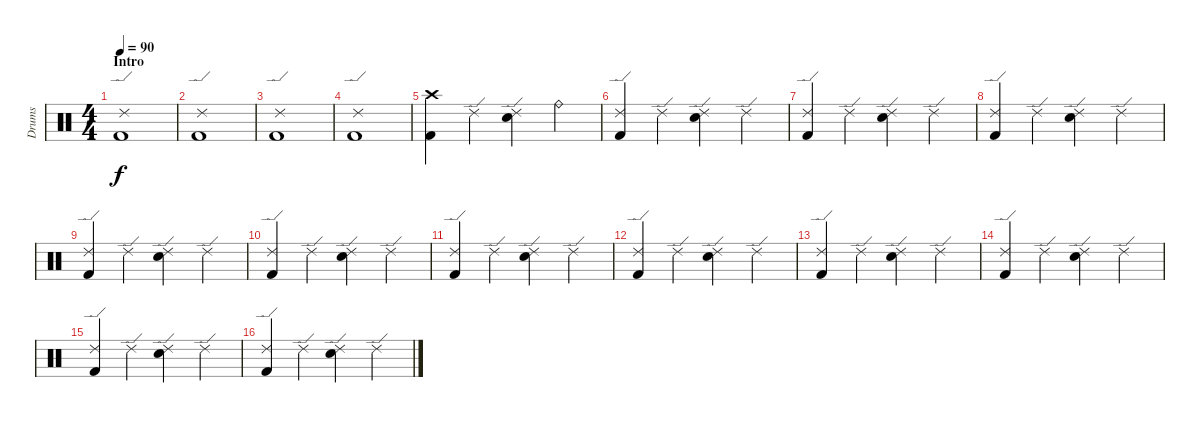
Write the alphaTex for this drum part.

\track ("Drums" "Drums") {instrument percussion}
\staff {score}
\articulation defaults
\ts (4 4)
\section ("" "Intro")
\tempo 90
\clef neutral
\ks c
("Kick (hit) 2" "Ride (edge) 2").1{dy f} |
("Kick (hit) 2" "Ride (edge) 2").1 |
("Kick (hit) 2" "Ride (edge) 2").1 |
("Kick (hit) 2" "Ride (edge) 2").1 |
("Crash high (hit)" "Kick (hit) 2").4 "Ride (edge) 2".4 ("Ride (edge) 2" "Electric Snare (hit)").4 "Ride (bell)".4 |
("Ride (edge) 2" "Kick (hit) 2").4 "Ride (edge) 2".4 ("Ride (edge) 2" "Electric Snare (hit)").4 "Ride (edge) 2".4 |
("Ride (edge) 2" "Kick (hit) 2").4 "Ride (edge) 2".4 ("Ride (edge) 2" "Electric Snare (hit)").4 "Ride (edge) 2".4 |
("Ride (edge) 2" "Kick (hit) 2").4 "Ride (edge) 2".4 ("Ride (edge) 2" "Electric Snare (hit)").4 "Ride (edge) 2".4 |
("Ride (edge) 2" "Kick (hit) 2").4 "Ride (edge) 2".4 ("Ride (edge) 2" "Electric Snare (hit)").4 "Ride (edge) 2".4 |
("Ride (edge) 2" "Kick (hit) 2").4 "Ride (edge) 2".4 ("Ride (edge) 2" "Electric Snare (hit)").4 "Ride (edge) 2".4 |
("Ride (edge) 2" "Kick (hit) 2").4 "Ride (edge) 2".4 ("Ride (edge) 2" "Electric Snare (hit)").4 "Ride (edge) 2".4 |
("Ride (edge) 2" "Kick (hit) 2").4 "Ride (edge) 2".4 ("Ride (edge) 2" "Electric Snare (hit)").4 "Ride (edge) 2".4 |
("Ride (edge) 2" "Kick (hit) 2").4 "Ride (edge) 2".4 ("Ride (edge) 2" "Electric Snare (hit)").4 "Ride (edge) 2".4 |
("Ride (edge) 2" "Kick (hit) 2").4 "Ride (edge) 2".4 ("Ride (edge) 2" "Electric Snare (hit)").4 "Ride (edge) 2".4 |
("Ride (edge) 2" "Kick (hit) 2").4 "Ride (edge) 2".4 ("Ride (edge) 2" "Electric Snare (hit)").4 "Ride (edge) 2".4 |
("Ride (edge) 2" "Kick (hit) 2").4 "Ride (edge) 2".4 ("Ride (edge) 2" "Electric Snare (hit)").4 "Ride (edge) 2".4
